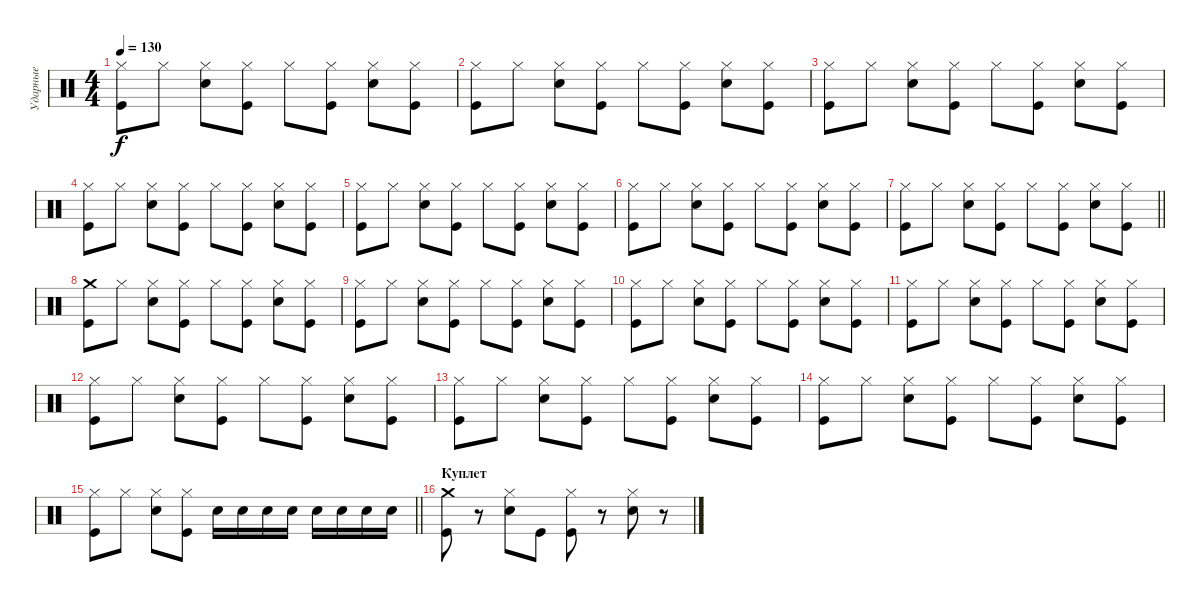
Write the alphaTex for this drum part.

\track ("Ударные" "Ударные") {instrument percussion}
\staff {score}
\articulation defaults
\ts (4 4)
\tempo 130
\clef neutral
\ks c
("Kick (hit)" "Hi-Hat (closed)").8{dy f} "Hi-Hat (closed)".8 ("Electric Snare (hit)" "Hi-Hat (closed)").8 ("Kick (hit)" "Hi-Hat (closed)").8 "Hi-Hat (closed)".8 ("Kick (hit)" "Hi-Hat (closed)").8 ("Electric Snare (hit)" "Hi-Hat (closed)").8 ("Kick (hit)" "Hi-Hat (closed)").8 |
("Kick (hit)" "Hi-Hat (closed)").8 "Hi-Hat (closed)".8 ("Electric Snare (hit)" "Hi-Hat (closed)").8 ("Kick (hit)" "Hi-Hat (closed)").8 "Hi-Hat (closed)".8 ("Kick (hit)" "Hi-Hat (closed)").8 ("Electric Snare (hit)" "Hi-Hat (closed)").8 ("Kick (hit)" "Hi-Hat (closed)").8 |
("Kick (hit)" "Hi-Hat (closed)").8 "Hi-Hat (closed)".8 ("Electric Snare (hit)" "Hi-Hat (closed)").8 ("Kick (hit)" "Hi-Hat (closed)").8 "Hi-Hat (closed)".8 ("Kick (hit)" "Hi-Hat (closed)").8 ("Electric Snare (hit)" "Hi-Hat (closed)").8 ("Kick (hit)" "Hi-Hat (closed)").8 |
("Kick (hit)" "Hi-Hat (closed)").8 "Hi-Hat (closed)".8 ("Electric Snare (hit)" "Hi-Hat (closed)").8 ("Kick (hit)" "Hi-Hat (closed)").8 "Hi-Hat (closed)".8 ("Kick (hit)" "Hi-Hat (closed)").8 ("Electric Snare (hit)" "Hi-Hat (closed)").8 ("Kick (hit)" "Hi-Hat (closed)").8 |
("Kick (hit)" "Hi-Hat (closed)").8 "Hi-Hat (closed)".8 ("Electric Snare (hit)" "Hi-Hat (closed)").8 ("Kick (hit)" "Hi-Hat (closed)").8 "Hi-Hat (closed)".8 ("Kick (hit)" "Hi-Hat (closed)").8 ("Electric Snare (hit)" "Hi-Hat (closed)").8 ("Kick (hit)" "Hi-Hat (closed)").8 |
("Kick (hit)" "Hi-Hat (closed)").8 "Hi-Hat (closed)".8 ("Electric Snare (hit)" "Hi-Hat (closed)").8 ("Kick (hit)" "Hi-Hat (closed)").8 "Hi-Hat (closed)".8 ("Kick (hit)" "Hi-Hat (closed)").8 ("Electric Snare (hit)" "Hi-Hat (closed)").8 ("Kick (hit)" "Hi-Hat (closed)").8 |
\barLineRight lightlight
("Kick (hit)" "Hi-Hat (closed)").8 "Hi-Hat (closed)".8 ("Electric Snare (hit)" "Hi-Hat (closed)").8 ("Kick (hit)" "Hi-Hat (closed)").8 "Hi-Hat (closed)".8 ("Kick (hit)" "Hi-Hat (closed)").8 ("Electric Snare (hit)" "Hi-Hat (closed)").8 ("Kick (hit)" "Hi-Hat (closed)").8 |
("Kick (hit)" "Crash medium (hit)").8 "Hi-Hat (closed)".8 ("Electric Snare (hit)" "Hi-Hat (closed)").8 ("Kick (hit)" "Hi-Hat (closed)").8 "Hi-Hat (closed)".8 ("Kick (hit)" "Hi-Hat (closed)").8 ("Electric Snare (hit)" "Hi-Hat (closed)").8 ("Kick (hit)" "Hi-Hat (closed)").8 |
("Kick (hit)" "Hi-Hat (closed)").8 "Hi-Hat (closed)".8 ("Electric Snare (hit)" "Hi-Hat (closed)").8 ("Kick (hit)" "Hi-Hat (closed)").8 "Hi-Hat (closed)".8 ("Kick (hit)" "Hi-Hat (closed)").8 ("Electric Snare (hit)" "Hi-Hat (closed)").8 ("Kick (hit)" "Hi-Hat (closed)").8 |
("Kick (hit)" "Hi-Hat (closed)").8 "Hi-Hat (closed)".8 ("Electric Snare (hit)" "Hi-Hat (closed)").8 ("Kick (hit)" "Hi-Hat (closed)").8 "Hi-Hat (closed)".8 ("Kick (hit)" "Hi-Hat (closed)").8 ("Electric Snare (hit)" "Hi-Hat (closed)").8 ("Kick (hit)" "Hi-Hat (closed)").8 |
("Kick (hit)" "Hi-Hat (closed)").8 "Hi-Hat (closed)".8 ("Electric Snare (hit)" "Hi-Hat (closed)").8 ("Kick (hit)" "Hi-Hat (closed)").8 "Hi-Hat (closed)".8 ("Kick (hit)" "Hi-Hat (closed)").8 ("Electric Snare (hit)" "Hi-Hat (closed)").8 ("Kick (hit)" "Hi-Hat (closed)").8 |
("Kick (hit)" "Hi-Hat (closed)").8 "Hi-Hat (closed)".8 ("Electric Snare (hit)" "Hi-Hat (closed)").8 ("Kick (hit)" "Hi-Hat (closed)").8 "Hi-Hat (closed)".8 ("Kick (hit)" "Hi-Hat (closed)").8 ("Electric Snare (hit)" "Hi-Hat (closed)").8 ("Kick (hit)" "Hi-Hat (closed)").8 |
("Kick (hit)" "Hi-Hat (closed)").8 "Hi-Hat (closed)".8 ("Electric Snare (hit)" "Hi-Hat (closed)").8 ("Kick (hit)" "Hi-Hat (closed)").8 "Hi-Hat (closed)".8 ("Kick (hit)" "Hi-Hat (closed)").8 ("Electric Snare (hit)" "Hi-Hat (closed)").8 ("Kick (hit)" "Hi-Hat (closed)").8 |
("Kick (hit)" "Hi-Hat (closed)").8 "Hi-Hat (closed)".8 ("Electric Snare (hit)" "Hi-Hat (closed)").8 ("Kick (hit)" "Hi-Hat (closed)").8 "Hi-Hat (closed)".8 ("Kick (hit)" "Hi-Hat (closed)").8 ("Electric Snare (hit)" "Hi-Hat (closed)").8 ("Kick (hit)" "Hi-Hat (closed)").8 |
\barLineRight lightlight
("Kick (hit)" "Hi-Hat (closed)").8 "Hi-Hat (closed)".8 ("Electric Snare (hit)" "Hi-Hat (closed)").8 ("Kick (hit)" "Hi-Hat (closed)").8 "Electric Snare (hit)".16 "Electric Snare (hit)".16 "Electric Snare (hit)".16 "Electric Snare (hit)".16 "Electric Snare (hit)".16 "Electric Snare (hit)".16 "Electric Snare (hit)".16 "Electric Snare (hit)".16 |
\section ("" "Куплет")
("Crash medium (hit)" "Kick (hit)").8 r.8 ("Hi-Hat (closed)" "Electric Snare (hit)").8 "Kick (hit)".8 ("Hi-Hat (closed)" "Kick (hit)").8 r.8 ("Hi-Hat (closed)" "Electric Snare (hit)").8 r.8
